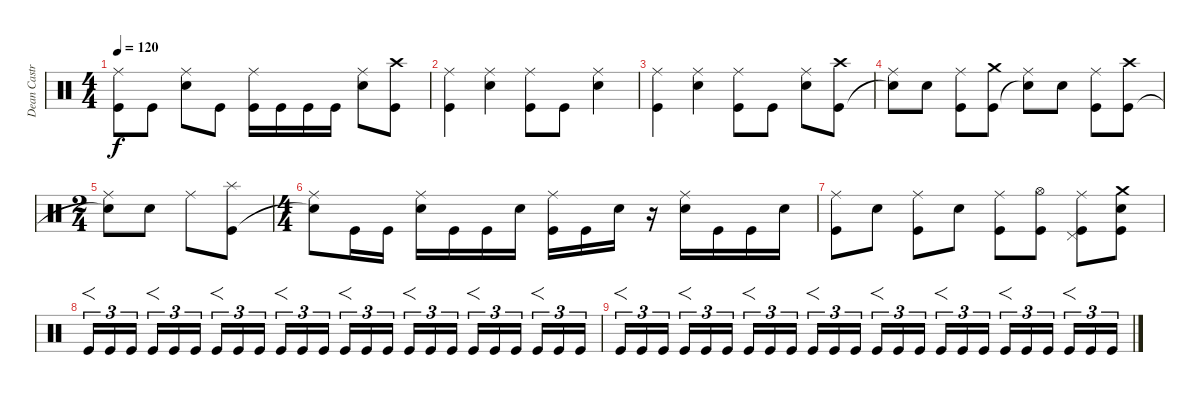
\track ("Dean Castronova" "Dean Castr") {instrument percussion}
\staff {score}
\articulation defaults
\ts (4 4)
\tempo 120
\clef neutral
\ks c
("Ride (middle)" "Kick (hit)").8{dy f} "Kick (hit)".8 ("Ride (middle)" "Electric Snare (hit)").8 "Kick (hit)".8 ("Ride (middle)" "Kick (hit)").16 "Kick (hit)".16 "Kick (hit)".16 "Kick (hit)".16 ("Ride (middle)" "Electric Snare (hit)").8 ("Crash high (hit)" "Kick (hit)").8 |
("Ride (middle)" "Kick (hit)").4 ("Ride (middle)" "Electric Snare (hit)").4 ("Ride (middle)" "Kick (hit)").8 "Kick (hit)".8 ("Ride (middle)" "Electric Snare (hit)").4 |
("Ride (middle)" "Kick (hit)").4 ("Ride (middle)" "Electric Snare (hit)").4 ("Ride (middle)" "Kick (hit)").8 "Kick (hit)".8 ("Ride (middle)" "Electric Snare (hit)").8 ("Crash high (hit)" "Kick (hit)").8 |
("Ride (middle)" "Snare (hit)"{t}).8 "Electric Snare (hit)".8 ("Ride (middle)" "Kick (hit)").8 ("Crash medium (hit)" "Kick (hit)").8 ("Ride (middle)" "Snare (hit)"{t}).8 "Electric Snare (hit)".8 ("Ride (middle)" "Kick (hit)").8 ("Crash high (hit)" "Kick (hit)").8 |
\ts (2 4)
("Ride (middle)" "Snare (hit)"{t}).8 "Electric Snare (hit)".8 "Ride (middle)".8 ("Splash (hit)" "Kick (hit)").8 |
\ts (4 4)
("Ride (middle)" "Snare (hit)"{t}).8 "Kick (hit)".16 "Kick (hit)".16 ("Ride (middle)" "Electric Snare (hit)").16 "Kick (hit)".16 "Kick (hit)".16 "Electric Snare (hit)".16 ("Ride (middle)" "Kick (hit)").16 "Kick (hit)".16 "Electric Snare (hit)".16 r.16 ("Ride (middle)" "Electric Snare (hit)").16 "Kick (hit)".16 "Kick (hit)".16 "Electric Snare (hit)".16 |
("Ride (middle)" "Kick (hit)").8 "Electric Snare (hit)".8 ("Ride (middle)" "Kick (hit)").8 "Electric Snare (hit)".8 ("Ride (middle)" "Kick (hit)").8 ("Hi-Hat (open)" "Kick (hit)").8 ("Ride (middle)" "Pedal Hi-Hat (hit)" "Kick (hit)").8 ("Crash medium (hit)" "Electric Snare (hit)" "Kick (hit)").8 |
"Kick (hit)".16{f tu (3 2)} "Kick (hit)".16{tu (3 2)} "Kick (hit)".16{tu (3 2)} "Kick (hit)".16{f tu (3 2)} "Kick (hit)".16{tu (3 2)} "Kick (hit)".16{tu (3 2)} "Kick (hit)".16{f tu (3 2)} "Kick (hit)".16{tu (3 2)} "Kick (hit)".16{tu (3 2)} "Kick (hit)".16{f tu (3 2)} "Kick (hit)".16{tu (3 2)} "Kick (hit)".16{tu (3 2)} "Kick (hit)".16{f tu (3 2)} "Kick (hit)".16{tu (3 2)} "Kick (hit)".16{tu (3 2)} "Kick (hit)".16{f tu (3 2)} "Kick (hit)".16{tu (3 2)} "Kick (hit)".16{tu (3 2)} "Kick (hit)".16{f tu (3 2)} "Kick (hit)".16{tu (3 2)} "Kick (hit)".16{tu (3 2)} "Kick (hit)".16{f tu (3 2)} "Kick (hit)".16{tu (3 2)} "Kick (hit)".16{tu (3 2)} |
"Kick (hit)".16{f tu (3 2)} "Kick (hit)".16{tu (3 2)} "Kick (hit)".16{tu (3 2)} "Kick (hit)".16{f tu (3 2)} "Kick (hit)".16{tu (3 2)} "Kick (hit)".16{tu (3 2)} "Kick (hit)".16{f tu (3 2)} "Kick (hit)".16{tu (3 2)} "Kick (hit)".16{tu (3 2)} "Kick (hit)".16{f tu (3 2)} "Kick (hit)".16{tu (3 2)} "Kick (hit)".16{tu (3 2)} "Kick (hit)".16{f tu (3 2)} "Kick (hit)".16{tu (3 2)} "Kick (hit)".16{tu (3 2)} "Kick (hit)".16{f tu (3 2)} "Kick (hit)".16{tu (3 2)} "Kick (hit)".16{tu (3 2)} "Kick (hit)".16{f tu (3 2)} "Kick (hit)".16{tu (3 2)} "Kick (hit)".16{tu (3 2)} "Kick (hit)".16{f tu (3 2)} "Kick (hit)".16{tu (3 2)} "Kick (hit)".16{tu (3 2)}
